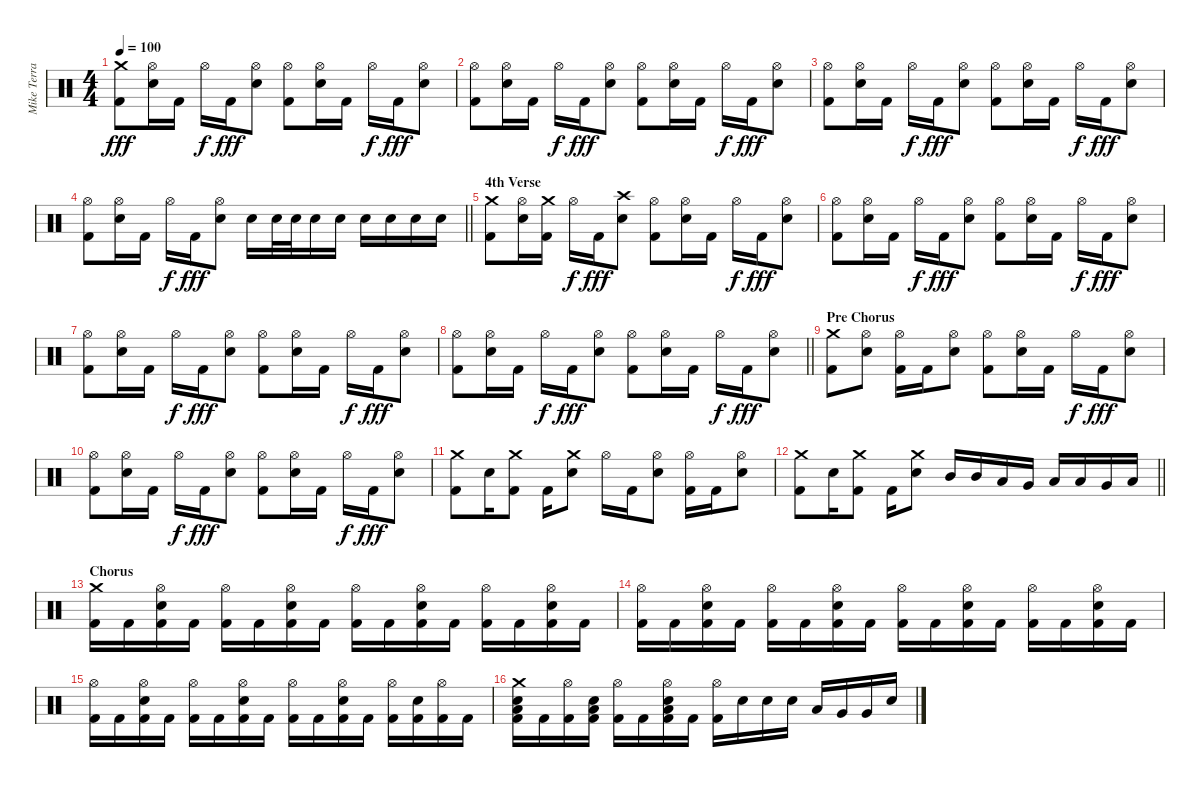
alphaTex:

\track ("Mike Terrana" "Mike Terra") {instrument percussion}
\staff {score}
\articulation defaults
\ts (4 4)
\tempo 100
\clef neutral
\ks c
("Crash medium (hit)" "Kick (hit) 2").8{dy fff} ("Hi-Hat (open)" "Snare (hit) 2").16 "Kick (hit) 2".16 "Hi-Hat (open)".16{dy f} "Kick (hit) 2".16{dy fff} ("Hi-Hat (open)" "Snare (hit) 2").8 ("Hi-Hat (open)" "Kick (hit) 2").8 ("Hi-Hat (open)" "Snare (hit) 2").16 "Kick (hit) 2".16 "Hi-Hat (open)".16{dy f} "Kick (hit) 2".16{dy fff} ("Hi-Hat (open)" "Snare (hit) 2").8 |
("Hi-Hat (open)" "Kick (hit) 2").8 ("Hi-Hat (open)" "Snare (hit) 2").16 "Kick (hit) 2".16 "Hi-Hat (open)".16{dy f} "Kick (hit) 2".16{dy fff} ("Hi-Hat (open)" "Snare (hit) 2").8 ("Hi-Hat (open)" "Kick (hit) 2").8 ("Hi-Hat (open)" "Snare (hit) 2").16 "Kick (hit) 2".16 "Hi-Hat (open)".16{dy f} "Kick (hit) 2".16{dy fff} ("Hi-Hat (open)" "Snare (hit) 2").8 |
("Hi-Hat (open)" "Kick (hit) 2").8 ("Hi-Hat (open)" "Snare (hit) 2").16 "Kick (hit) 2".16 "Hi-Hat (open)".16{dy f} "Kick (hit) 2".16{dy fff} ("Hi-Hat (open)" "Snare (hit) 2").8 ("Hi-Hat (open)" "Kick (hit) 2").8 ("Hi-Hat (open)" "Snare (hit) 2").16 "Kick (hit) 2".16 "Hi-Hat (open)".16{dy f} "Kick (hit) 2".16{dy fff} ("Hi-Hat (open)" "Snare (hit) 2").8 |
\barLineRight lightlight
("Hi-Hat (open)" "Kick (hit) 2").8 ("Hi-Hat (open)" "Snare (hit) 2").16 "Kick (hit) 2".16 "Hi-Hat (open)".16{dy f} "Kick (hit) 2".16{dy fff} ("Hi-Hat (open)" "Snare (hit) 2").8 "Snare (hit) 2".16 "Snare (hit) 2".32 "Snare (hit) 2".32 "Snare (hit) 2".16 "Snare (hit) 2".16 "Snare (hit) 2".16 "Snare (hit) 2".16 "Snare (hit) 2".16 "Snare (hit) 2".16 |
\section ("" "4th Verse")
("Crash medium (hit)" "Kick (hit) 2").8 ("Hi-Hat (open)" "Snare (hit) 2").16 ("Crash medium (hit)" "Kick (hit) 2").16 "Hi-Hat (open)".16{dy f} "Kick (hit) 2".16{dy fff} ("Crash high (hit)" "Snare (hit) 2").8 ("Hi-Hat (open)" "Kick (hit) 2").8 ("Hi-Hat (open)" "Snare (hit) 2").16 "Kick (hit) 2".16 "Hi-Hat (open)".16{dy f} "Kick (hit) 2".16{dy fff} ("Hi-Hat (open)" "Snare (hit) 2").8 |
("Hi-Hat (open)" "Kick (hit) 2").8 ("Hi-Hat (open)" "Snare (hit) 2").16 "Kick (hit) 2".16 "Hi-Hat (open)".16{dy f} "Kick (hit) 2".16{dy fff} ("Hi-Hat (open)" "Snare (hit) 2").8 ("Hi-Hat (open)" "Kick (hit) 2").8 ("Hi-Hat (open)" "Snare (hit) 2").16 "Kick (hit) 2".16 "Hi-Hat (open)".16{dy f} "Kick (hit) 2".16{dy fff} ("Hi-Hat (open)" "Snare (hit) 2").8 |
("Hi-Hat (open)" "Kick (hit) 2").8 ("Hi-Hat (open)" "Snare (hit) 2").16 "Kick (hit) 2".16 "Hi-Hat (open)".16{dy f} "Kick (hit) 2".16{dy fff} ("Hi-Hat (open)" "Snare (hit) 2").8 ("Hi-Hat (open)" "Kick (hit) 2").8 ("Hi-Hat (open)" "Snare (hit) 2").16 "Kick (hit) 2".16 "Hi-Hat (open)".16{dy f} "Kick (hit) 2".16{dy fff} ("Hi-Hat (open)" "Snare (hit) 2").8 |
\barLineRight lightlight
("Hi-Hat (open)" "Kick (hit) 2").8 ("Hi-Hat (open)" "Snare (hit) 2").16 "Kick (hit) 2".16 "Hi-Hat (open)".16{dy f} "Kick (hit) 2".16{dy fff} ("Hi-Hat (open)" "Snare (hit) 2").8 ("Hi-Hat (open)" "Kick (hit) 2").8 ("Hi-Hat (open)" "Snare (hit) 2").16 "Kick (hit) 2".16 "Hi-Hat (open)".16{dy f} "Kick (hit) 2".16{dy fff} ("Hi-Hat (open)" "Snare (hit) 2").8 |
\section ("" "Pre Chorus")
("Crash medium (hit)" "Kick (hit) 2").8 ("Hi-Hat (open)" "Snare (hit) 2").8 ("Hi-Hat (open)" "Kick (hit) 2").16 "Kick (hit) 2".16 ("Hi-Hat (open)" "Snare (hit) 2").8 ("Hi-Hat (open)" "Kick (hit) 2").8 ("Hi-Hat (open)" "Snare (hit) 2").16 "Kick (hit) 2".16 "Hi-Hat (open)".16{dy f} "Kick (hit) 2".16{dy fff} ("Hi-Hat (open)" "Snare (hit) 2").8 |
("Hi-Hat (open)" "Kick (hit) 2").8 ("Hi-Hat (open)" "Snare (hit) 2").16 "Kick (hit) 2".16 "Hi-Hat (open)".16{dy f} "Kick (hit) 2".16{dy fff} ("Hi-Hat (open)" "Snare (hit) 2").8 ("Hi-Hat (open)" "Kick (hit) 2").8 ("Hi-Hat (open)" "Snare (hit) 2").16 "Kick (hit) 2".16 "Hi-Hat (open)".16{dy f} "Kick (hit) 2".16{dy fff} ("Hi-Hat (open)" "Snare (hit) 2").8 |
("Crash medium (hit)" "Kick (hit) 2").8 "Snare (hit) 2".16 ("Crash medium (hit)" "Kick (hit) 2").8 "Kick (hit) 2".16 ("Crash medium (hit)" "Snare (hit) 2").8 "Hi-Hat (open)".16 "Kick (hit) 2".16 ("Hi-Hat (open)" "Snare (hit) 2").8 ("Hi-Hat (open)" "Kick (hit) 2").16 "Kick (hit) 2".16 ("Hi-Hat (open)" "Snare (hit) 2").8 |
\barLineRight lightlight
("Crash medium (hit)" "Kick (hit) 2").8 "Snare (hit) 2".16 ("Crash medium (hit)" "Kick (hit) 2").8 "Kick (hit) 2".16 ("Crash medium (hit)" "Snare (hit) 2").8 "Mid Tom (hit)".16 "Mid Tom (hit)".16 "Low Tom (hit)".16 "Very Low Tom (hit)".16 "Low Tom (hit)".16 "Low Tom (hit)".16 "Very Low Tom (hit)".16 "Low Floor Tom (hit)".16 |
\section ("" "Chorus")
("Crash medium (hit)" "Kick (hit) 2").16 "Kick (hit) 2".16 ("Hi-Hat (open)" "Snare (hit) 2" "Kick (hit) 2").16 "Kick (hit) 2".16 ("Hi-Hat (open)" "Kick (hit) 2").16 "Kick (hit) 2".16 ("Hi-Hat (open)" "Snare (hit) 2" "Kick (hit) 2").16 "Kick (hit) 2".16 ("Hi-Hat (open)" "Kick (hit) 2").16 "Kick (hit) 2".16 ("Hi-Hat (open)" "Snare (hit) 2" "Kick (hit) 2").16 "Kick (hit) 2".16 ("Hi-Hat (open)" "Kick (hit) 2").16 "Kick (hit) 2".16 ("Hi-Hat (open)" "Snare (hit) 2" "Kick (hit) 2").16 "Kick (hit) 2".16 |
("Hi-Hat (open)" "Kick (hit) 2").16 "Kick (hit) 2".16 ("Hi-Hat (open)" "Snare (hit) 2" "Kick (hit) 2").16 "Kick (hit) 2".16 ("Hi-Hat (open)" "Kick (hit) 2").16 "Kick (hit) 2".16 ("Hi-Hat (open)" "Snare (hit) 2" "Kick (hit) 2").16 "Kick (hit) 2".16 ("Hi-Hat (open)" "Kick (hit) 2").16 "Kick (hit) 2".16 ("Hi-Hat (open)" "Snare (hit) 2" "Kick (hit) 2").16 "Kick (hit) 2".16 ("Hi-Hat (open)" "Kick (hit) 2").16 "Kick (hit) 2".16 ("Hi-Hat (open)" "Snare (hit) 2" "Kick (hit) 2").16 "Kick (hit) 2".16 |
("Hi-Hat (open)" "Kick (hit) 2").16 "Kick (hit) 2".16 ("Hi-Hat (open)" "Snare (hit) 2" "Kick (hit) 2").16 "Kick (hit) 2".16 ("Hi-Hat (open)" "Kick (hit) 2").16 "Kick (hit) 2".16 ("Hi-Hat (open)" "Snare (hit) 2" "Kick (hit) 2").16 "Kick (hit) 2".16 ("Hi-Hat (open)" "Kick (hit) 2").16 "Kick (hit) 2".16 ("Hi-Hat (open)" "Snare (hit) 2" "Kick (hit) 2").16 "Kick (hit) 2".16 ("Hi-Hat (open)" "Kick (hit) 2").16 ("Snare (hit) 2" "Kick (hit) 2").16 ("Hi-Hat (open)" "Kick (hit) 2").16 "Kick (hit) 2".16 |
("Crash medium (hit)" "Low Tom (hit)" "Snare (hit) 2" "Kick (hit) 2").16 "Kick (hit) 2".16 ("Hi-Hat (open)" "Kick (hit) 2").16 ("Low Tom (hit)" "Snare (hit) 2" "Kick (hit) 2").16 ("Hi-Hat (open)" "Kick (hit) 2").16 "Kick (hit) 2".16 ("Hi-Hat (open)" "Low Tom (hit)" "Snare (hit) 2" "Kick (hit) 2").16 "Kick (hit) 2".16 ("Hi-Hat (open)" "Kick (hit) 2").16 "Snare (hit) 2".16 "Snare (hit) 2".16 "Snare (hit) 2".16 "Low Tom (hit)".16 "Very Low Tom (hit)".16 "Very Low Tom (hit)".16 "Snare (hit) 2".16
